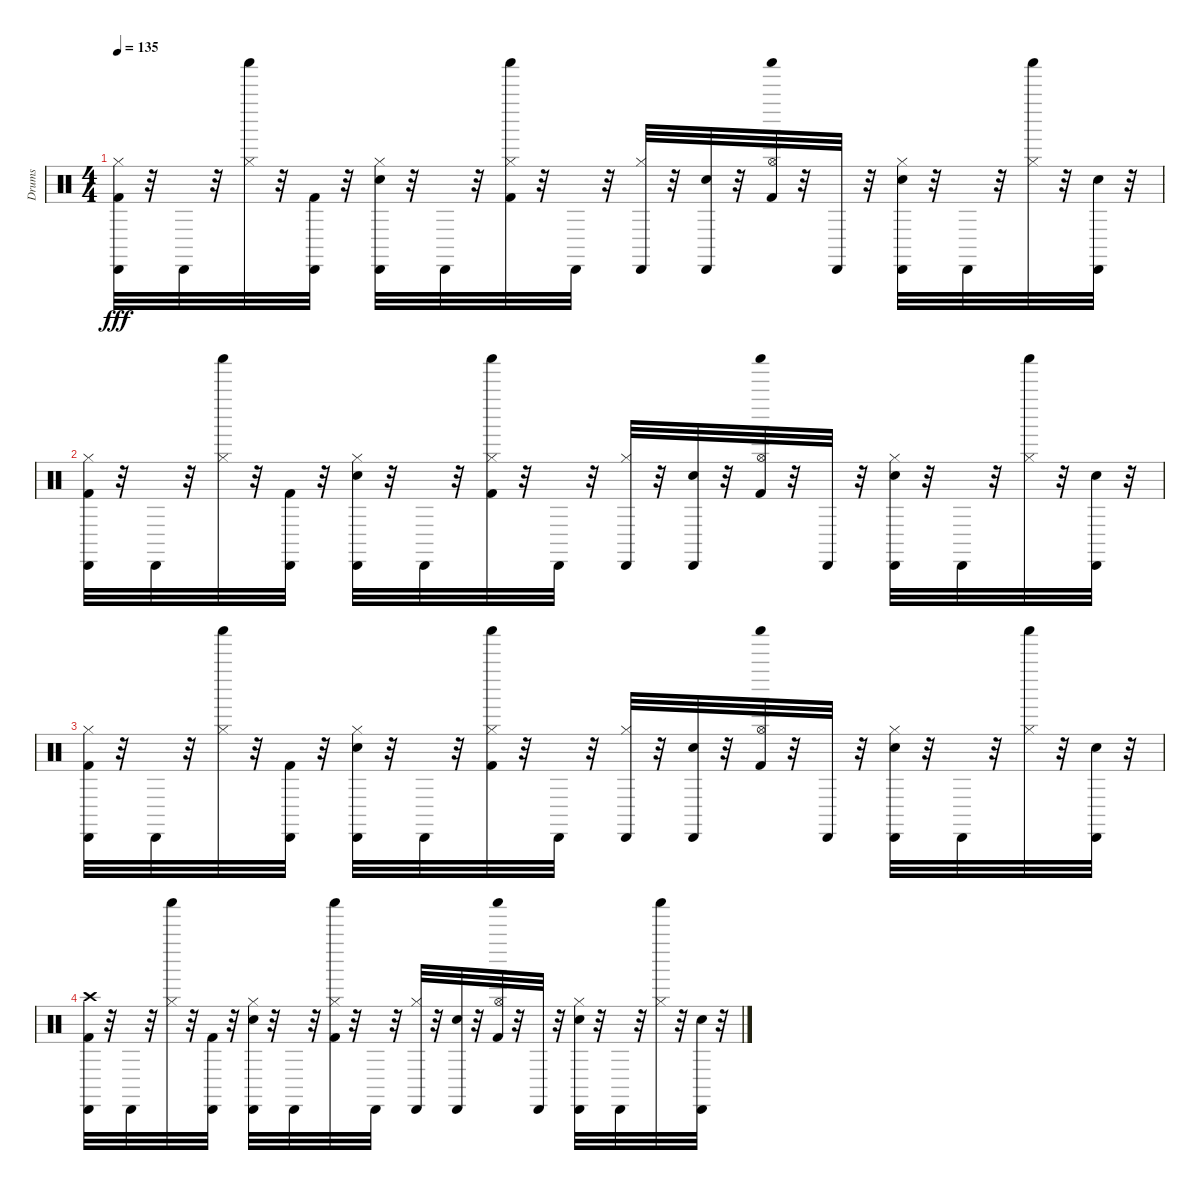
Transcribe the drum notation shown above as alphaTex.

\track ("Drums" "Drums") {instrument percussion}
\staff {score}
\articulation defaults
\ts (4 4)
\tempo 135
\clef neutral
\ks c
("Hi-Hat (closed)" "Kick (hit) 2" "Cabasa (hit)").32{dy fff} r.32 "Cabasa (hit)".32 r.32 ("Shaker (hit)" "Hi-Hat (closed)").32 r.32 ("Kick (hit) 2" "Cabasa (hit)").32 r.32 ("Snare (hit) 2" "Hi-Hat (closed)" "Cabasa (hit)").32 r.32 "Cabasa (hit)".32 r.32 ("Kick (hit) 2" "Shaker (hit)" "Hi-Hat (closed)").32 r.32 "Cabasa (hit)".32 r.32 ("Hi-Hat (closed)" "Cabasa (hit)").32 r.32 ("Snare (hit) 2" "Cabasa (hit)").32 r.32 ("Kick (hit) 2" "Shaker (hit)" "Hi-Hat (open)").32 r.32 "Cabasa (hit)".32 r.32 ("Snare (hit) 2" "Hi-Hat (closed)" "Cabasa (hit)").32 r.32 "Cabasa (hit)".32 r.32 ("Shaker (hit)" "Hi-Hat (closed)").32 r.32 ("Snare (hit) 2" "Cabasa (hit)").32 r.32 |
("Hi-Hat (closed)" "Kick (hit) 2" "Cabasa (hit)").32 r.32 "Cabasa (hit)".32 r.32 ("Shaker (hit)" "Hi-Hat (closed)").32 r.32 ("Kick (hit) 2" "Cabasa (hit)").32 r.32 ("Snare (hit) 2" "Hi-Hat (closed)" "Cabasa (hit)").32 r.32 "Cabasa (hit)".32 r.32 ("Kick (hit) 2" "Shaker (hit)" "Hi-Hat (closed)").32 r.32 "Cabasa (hit)".32 r.32 ("Hi-Hat (closed)" "Cabasa (hit)").32 r.32 ("Snare (hit) 2" "Cabasa (hit)").32 r.32 ("Kick (hit) 2" "Shaker (hit)" "Hi-Hat (open)").32 r.32 "Cabasa (hit)".32 r.32 ("Snare (hit) 2" "Hi-Hat (closed)" "Cabasa (hit)").32 r.32 "Cabasa (hit)".32 r.32 ("Shaker (hit)" "Hi-Hat (closed)").32 r.32 ("Snare (hit) 2" "Cabasa (hit)").32 r.32 |
("Hi-Hat (closed)" "Kick (hit) 2" "Cabasa (hit)").32 r.32 "Cabasa (hit)".32 r.32 ("Shaker (hit)" "Hi-Hat (closed)").32 r.32 ("Kick (hit) 2" "Cabasa (hit)").32 r.32 ("Snare (hit) 2" "Hi-Hat (closed)" "Cabasa (hit)").32 r.32 "Cabasa (hit)".32 r.32 ("Kick (hit) 2" "Shaker (hit)" "Hi-Hat (closed)").32 r.32 "Cabasa (hit)".32 r.32 ("Hi-Hat (closed)" "Cabasa (hit)").32 r.32 ("Snare (hit) 2" "Cabasa (hit)").32 r.32 ("Kick (hit) 2" "Shaker (hit)" "Hi-Hat (open)").32 r.32 "Cabasa (hit)".32 r.32 ("Snare (hit) 2" "Hi-Hat (closed)" "Cabasa (hit)").32 r.32 "Cabasa (hit)".32 r.32 ("Shaker (hit)" "Hi-Hat (closed)").32 r.32 ("Snare (hit) 2" "Cabasa (hit)").32 r.32 |
("Crash high (hit)" "Kick (hit) 2" "Cabasa (hit)").32 r.32 "Cabasa (hit)".32 r.32 ("Shaker (hit)" "Hi-Hat (closed)").32 r.32 ("Kick (hit) 2" "Cabasa (hit)").32 r.32 ("Snare (hit) 2" "Hi-Hat (closed)" "Cabasa (hit)").32 r.32 "Cabasa (hit)".32 r.32 ("Kick (hit) 2" "Shaker (hit)" "Hi-Hat (closed)").32 r.32 "Cabasa (hit)".32 r.32 ("Hi-Hat (closed)" "Cabasa (hit)").32 r.32 ("Snare (hit) 2" "Cabasa (hit)").32 r.32 ("Kick (hit) 2" "Shaker (hit)" "Hi-Hat (open)").32 r.32 "Cabasa (hit)".32 r.32 ("Snare (hit) 2" "Hi-Hat (closed)" "Cabasa (hit)").32 r.32 "Cabasa (hit)".32 r.32 ("Shaker (hit)" "Hi-Hat (closed)").32 r.32 ("Snare (hit) 2" "Cabasa (hit)").32 r.32
